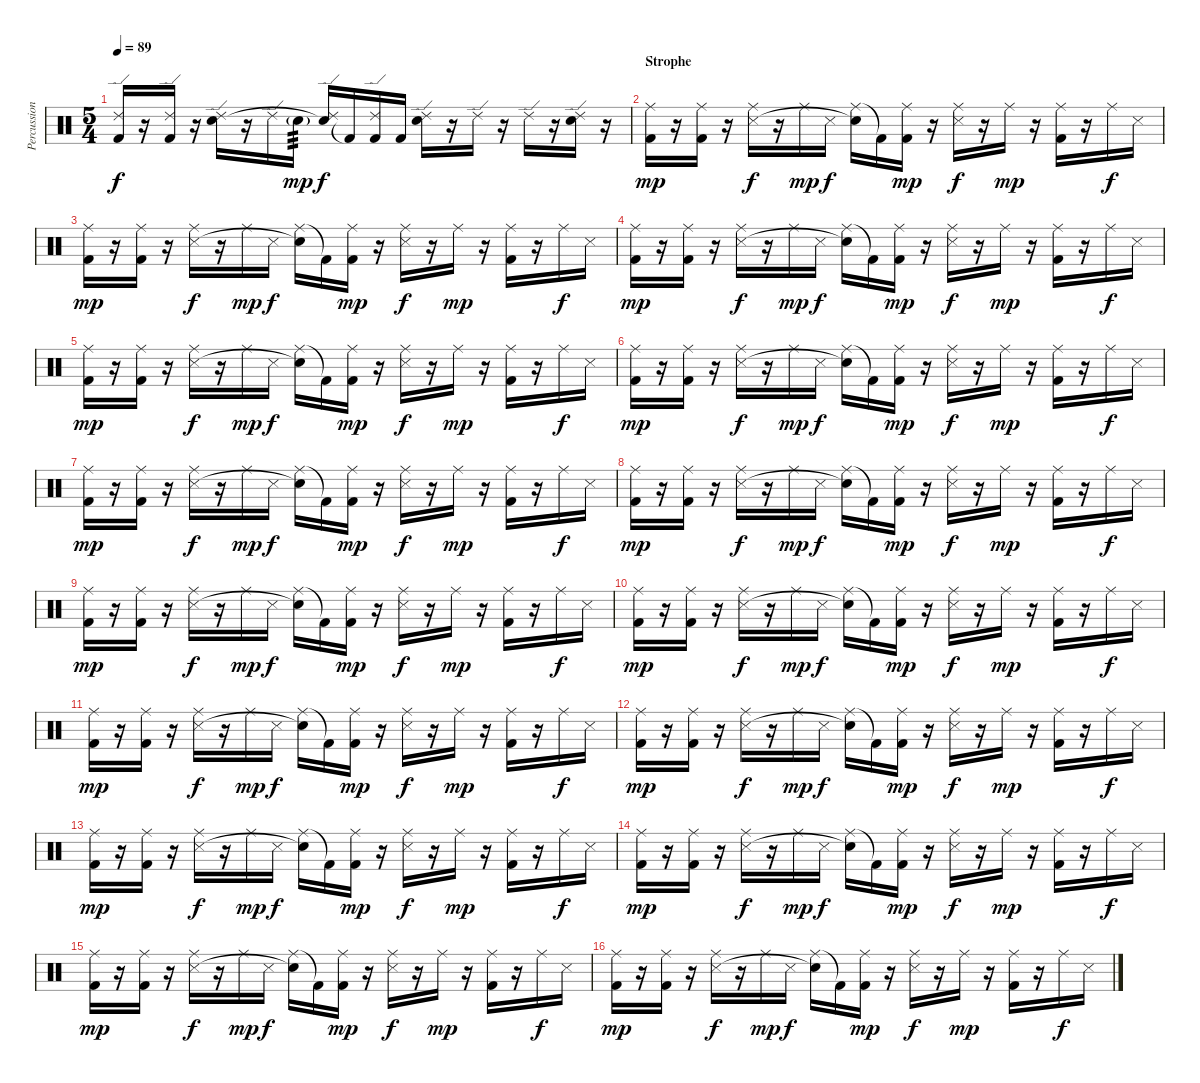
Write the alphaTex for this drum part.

\track ("Percussion" "Percussion") {instrument percussion}
\staff {score}
\articulation defaults
\ts (5 4)
\tempo 89
\clef neutral
\ks c
("Ride (edge) 2" "Kick (hit) 2").16{dy f} r.16 ("Ride (edge) 2" "Kick (hit) 2").16 r.16 ("Ride (edge) 2" "Snare (hit) 2").16 r.16 "Ride (edge) 2".16 "Snare (hit) 2"{g}.16{tp 3 dy mp} ("Ride (edge) 2" "Snare (hit)"{t}).16{dy f} "Kick (hit) 2"{t}.16 ("Ride (edge) 2" "Kick (hit) 2").16 "Kick (hit) 2".16 ("Ride (edge) 2" "Snare (hit) 2").16 r.16 "Ride (edge) 2".16 r.16 "Ride (edge) 2".16 r.16 ("Ride (edge) 2" "Snare (hit) 2").16 r.16 |
\section ("" "Strophe")
("Ride (middle)" "Kick (hit) 2").16{dy mp} r.16 ("Ride (middle)" "Kick (hit) 2").16 r.16 ("Ride (middle)" "Snare (side stick) 3").16{dy f} r.16 "Ride (middle)".16{dy mp} "Snare (side stick) 3".16{dy f} ("Ride (middle)" "Snare (hit)"{t}).16 "Kick (hit) 2"{t}.16 ("Ride (middle)" "Kick (hit) 2").16{dy mp} r.16 ("Ride (middle)" "Snare (side stick) 3").16{dy f} r.16 "Ride (middle)".16{dy mp} r.16 ("Ride (middle)" "Kick (hit) 2").16 r.16 "Ride (middle)".16{dy f} "Snare (side stick) 3".16 |
("Ride (middle)" "Kick (hit) 2").16{dy mp} r.16 ("Ride (middle)" "Kick (hit) 2").16 r.16 ("Ride (middle)" "Snare (side stick) 3").16{dy f} r.16 "Ride (middle)".16{dy mp} "Snare (side stick) 3".16{dy f} ("Ride (middle)" "Snare (hit)"{t}).16 "Kick (hit) 2"{t}.16 ("Ride (middle)" "Kick (hit) 2").16{dy mp} r.16 ("Ride (middle)" "Snare (side stick) 3").16{dy f} r.16 "Ride (middle)".16{dy mp} r.16 ("Ride (middle)" "Kick (hit) 2").16 r.16 "Ride (middle)".16{dy f} "Snare (side stick) 3".16 |
("Ride (middle)" "Kick (hit) 2").16{dy mp} r.16 ("Ride (middle)" "Kick (hit) 2").16 r.16 ("Ride (middle)" "Snare (side stick) 3").16{dy f} r.16 "Ride (middle)".16{dy mp} "Snare (side stick) 3".16{dy f} ("Ride (middle)" "Snare (hit)"{t}).16 "Kick (hit) 2"{t}.16 ("Ride (middle)" "Kick (hit) 2").16{dy mp} r.16 ("Ride (middle)" "Snare (side stick) 3").16{dy f} r.16 "Ride (middle)".16{dy mp} r.16 ("Ride (middle)" "Kick (hit) 2").16 r.16 "Ride (middle)".16{dy f} "Snare (side stick) 3".16 |
("Ride (middle)" "Kick (hit) 2").16{dy mp} r.16 ("Ride (middle)" "Kick (hit) 2").16 r.16 ("Ride (middle)" "Snare (side stick) 3").16{dy f} r.16 "Ride (middle)".16{dy mp} "Snare (side stick) 3".16{dy f} ("Ride (middle)" "Snare (hit)"{t}).16 "Kick (hit) 2"{t}.16 ("Ride (middle)" "Kick (hit) 2").16{dy mp} r.16 ("Ride (middle)" "Snare (side stick) 3").16{dy f} r.16 "Ride (middle)".16{dy mp} r.16 ("Ride (middle)" "Kick (hit) 2").16 r.16 "Ride (middle)".16{dy f} "Snare (side stick) 3".16 |
("Ride (middle)" "Kick (hit) 2").16{dy mp} r.16 ("Ride (middle)" "Kick (hit) 2").16 r.16 ("Ride (middle)" "Snare (side stick) 3").16{dy f} r.16 "Ride (middle)".16{dy mp} "Snare (side stick) 3".16{dy f} ("Ride (middle)" "Snare (hit)"{t}).16 "Kick (hit) 2"{t}.16 ("Ride (middle)" "Kick (hit) 2").16{dy mp} r.16 ("Ride (middle)" "Snare (side stick) 3").16{dy f} r.16 "Ride (middle)".16{dy mp} r.16 ("Ride (middle)" "Kick (hit) 2").16 r.16 "Ride (middle)".16{dy f} "Snare (side stick) 3".16 |
("Ride (middle)" "Kick (hit) 2").16{dy mp} r.16 ("Ride (middle)" "Kick (hit) 2").16 r.16 ("Ride (middle)" "Snare (side stick) 3").16{dy f} r.16 "Ride (middle)".16{dy mp} "Snare (side stick) 3".16{dy f} ("Ride (middle)" "Snare (hit)"{t}).16 "Kick (hit) 2"{t}.16 ("Ride (middle)" "Kick (hit) 2").16{dy mp} r.16 ("Ride (middle)" "Snare (side stick) 3").16{dy f} r.16 "Ride (middle)".16{dy mp} r.16 ("Ride (middle)" "Kick (hit) 2").16 r.16 "Ride (middle)".16{dy f} "Snare (side stick) 3".16 |
("Ride (middle)" "Kick (hit) 2").16{dy mp} r.16 ("Ride (middle)" "Kick (hit) 2").16 r.16 ("Ride (middle)" "Snare (side stick) 3").16{dy f} r.16 "Ride (middle)".16{dy mp} "Snare (side stick) 3".16{dy f} ("Ride (middle)" "Snare (hit)"{t}).16 "Kick (hit) 2"{t}.16 ("Ride (middle)" "Kick (hit) 2").16{dy mp} r.16 ("Ride (middle)" "Snare (side stick) 3").16{dy f} r.16 "Ride (middle)".16{dy mp} r.16 ("Ride (middle)" "Kick (hit) 2").16 r.16 "Ride (middle)".16{dy f} "Snare (side stick) 3".16 |
("Ride (middle)" "Kick (hit) 2").16{dy mp} r.16 ("Ride (middle)" "Kick (hit) 2").16 r.16 ("Ride (middle)" "Snare (side stick) 3").16{dy f} r.16 "Ride (middle)".16{dy mp} "Snare (side stick) 3".16{dy f} ("Ride (middle)" "Snare (hit)"{t}).16 "Kick (hit) 2"{t}.16 ("Ride (middle)" "Kick (hit) 2").16{dy mp} r.16 ("Ride (middle)" "Snare (side stick) 3").16{dy f} r.16 "Ride (middle)".16{dy mp} r.16 ("Ride (middle)" "Kick (hit) 2").16 r.16 "Ride (middle)".16{dy f} "Snare (side stick) 3".16 |
("Ride (middle)" "Kick (hit) 2").16{dy mp} r.16 ("Ride (middle)" "Kick (hit) 2").16 r.16 ("Ride (middle)" "Snare (side stick) 3").16{dy f} r.16 "Ride (middle)".16{dy mp} "Snare (side stick) 3".16{dy f} ("Ride (middle)" "Snare (hit)"{t}).16 "Kick (hit) 2"{t}.16 ("Ride (middle)" "Kick (hit) 2").16{dy mp} r.16 ("Ride (middle)" "Snare (side stick) 3").16{dy f} r.16 "Ride (middle)".16{dy mp} r.16 ("Ride (middle)" "Kick (hit) 2").16 r.16 "Ride (middle)".16{dy f} "Snare (side stick) 3".16 |
("Ride (middle)" "Kick (hit) 2").16{dy mp} r.16 ("Ride (middle)" "Kick (hit) 2").16 r.16 ("Ride (middle)" "Snare (side stick) 3").16{dy f} r.16 "Ride (middle)".16{dy mp} "Snare (side stick) 3".16{dy f} ("Ride (middle)" "Snare (hit)"{t}).16 "Kick (hit) 2"{t}.16 ("Ride (middle)" "Kick (hit) 2").16{dy mp} r.16 ("Ride (middle)" "Snare (side stick) 3").16{dy f} r.16 "Ride (middle)".16{dy mp} r.16 ("Ride (middle)" "Kick (hit) 2").16 r.16 "Ride (middle)".16{dy f} "Snare (side stick) 3".16 |
("Ride (middle)" "Kick (hit) 2").16{dy mp} r.16 ("Ride (middle)" "Kick (hit) 2").16 r.16 ("Ride (middle)" "Snare (side stick) 3").16{dy f} r.16 "Ride (middle)".16{dy mp} "Snare (side stick) 3".16{dy f} ("Ride (middle)" "Snare (hit)"{t}).16 "Kick (hit) 2"{t}.16 ("Ride (middle)" "Kick (hit) 2").16{dy mp} r.16 ("Ride (middle)" "Snare (side stick) 3").16{dy f} r.16 "Ride (middle)".16{dy mp} r.16 ("Ride (middle)" "Kick (hit) 2").16 r.16 "Ride (middle)".16{dy f} "Snare (side stick) 3".16 |
("Ride (middle)" "Kick (hit) 2").16{dy mp} r.16 ("Ride (middle)" "Kick (hit) 2").16 r.16 ("Ride (middle)" "Snare (side stick) 3").16{dy f} r.16 "Ride (middle)".16{dy mp} "Snare (side stick) 3".16{dy f} ("Ride (middle)" "Snare (hit)"{t}).16 "Kick (hit) 2"{t}.16 ("Ride (middle)" "Kick (hit) 2").16{dy mp} r.16 ("Ride (middle)" "Snare (side stick) 3").16{dy f} r.16 "Ride (middle)".16{dy mp} r.16 ("Ride (middle)" "Kick (hit) 2").16 r.16 "Ride (middle)".16{dy f} "Snare (side stick) 3".16 |
("Ride (middle)" "Kick (hit) 2").16{dy mp} r.16 ("Ride (middle)" "Kick (hit) 2").16 r.16 ("Ride (middle)" "Snare (side stick) 3").16{dy f} r.16 "Ride (middle)".16{dy mp} "Snare (side stick) 3".16{dy f} ("Ride (middle)" "Snare (hit)"{t}).16 "Kick (hit) 2"{t}.16 ("Ride (middle)" "Kick (hit) 2").16{dy mp} r.16 ("Ride (middle)" "Snare (side stick) 3").16{dy f} r.16 "Ride (middle)".16{dy mp} r.16 ("Ride (middle)" "Kick (hit) 2").16 r.16 "Ride (middle)".16{dy f} "Snare (side stick) 3".16 |
("Ride (middle)" "Kick (hit) 2").16{dy mp} r.16 ("Ride (middle)" "Kick (hit) 2").16 r.16 ("Ride (middle)" "Snare (side stick) 3").16{dy f} r.16 "Ride (middle)".16{dy mp} "Snare (side stick) 3".16{dy f} ("Ride (middle)" "Snare (hit)"{t}).16 "Kick (hit) 2"{t}.16 ("Ride (middle)" "Kick (hit) 2").16{dy mp} r.16 ("Ride (middle)" "Snare (side stick) 3").16{dy f} r.16 "Ride (middle)".16{dy mp} r.16 ("Ride (middle)" "Kick (hit) 2").16 r.16 "Ride (middle)".16{dy f} "Snare (side stick) 3".16 |
("Ride (middle)" "Kick (hit) 2").16{dy mp} r.16 ("Ride (middle)" "Kick (hit) 2").16 r.16 ("Ride (middle)" "Snare (side stick) 3").16{dy f} r.16 "Ride (middle)".16{dy mp} "Snare (side stick) 3".16{dy f} ("Ride (middle)" "Snare (hit)"{t}).16 "Kick (hit) 2"{t}.16 ("Ride (middle)" "Kick (hit) 2").16{dy mp} r.16 ("Ride (middle)" "Snare (side stick) 3").16{dy f} r.16 "Ride (middle)".16{dy mp} r.16 ("Ride (middle)" "Kick (hit) 2").16 r.16 "Ride (middle)".16{dy f} "Snare (side stick) 3".16
